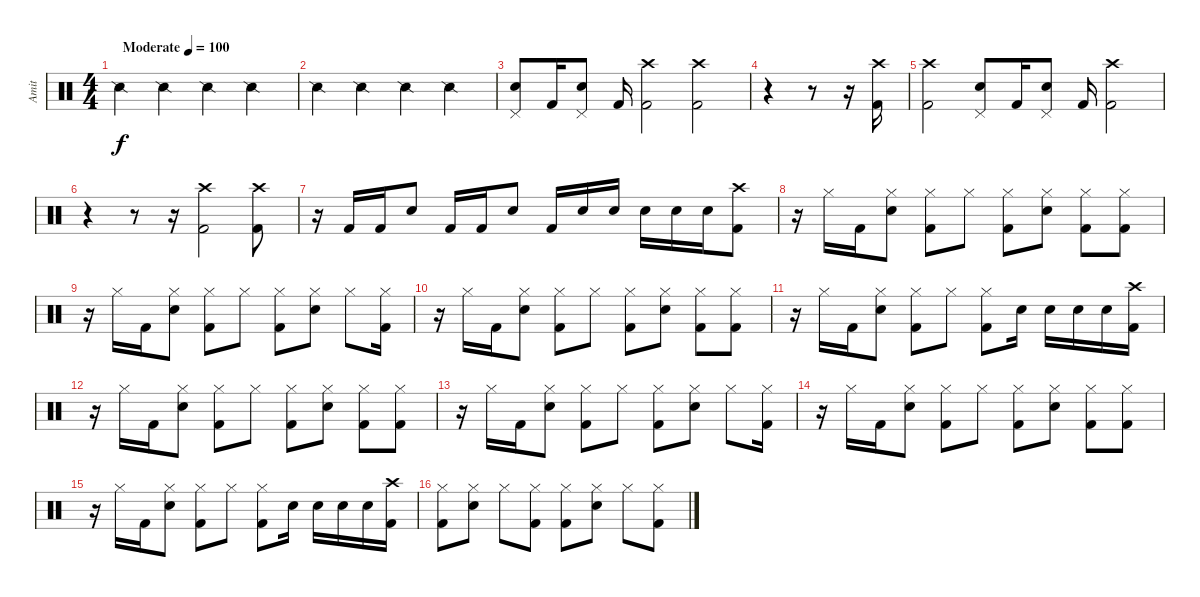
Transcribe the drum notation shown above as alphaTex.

\track ("Amit" "Amit") {instrument percussion}
\staff {score}
\articulation defaults
\ts (4 4)
\tempo (100 "Moderate")
\clef neutral
\ks c "Snare (side stick) 2".4{dy f} "Snare (side stick) 2".4 "Snare (side stick) 2".4 "Snare (side stick) 2".4
|
"Snare (side stick) 2".4 "Snare (side stick) 2".4 "Snare (side stick) 2".4 "Snare (side stick) 2".4 |
("Snare (hit) 2" "Pedal Hi-Hat (hit)").8 "Kick (hit) 2".16 ("Snare (hit) 2" "Pedal Hi-Hat (hit)").8 "Kick (hit) 2".16 ("Kick (hit) 2" "Crash high (hit)").2 ("Kick (hit) 2" "Crash high (hit)").2 |
r.4 r.8 r.16 ("Kick (hit) 2" "Crash high (hit)").16 |
("Kick (hit) 2" "Crash high (hit)").2 ("Snare (hit) 2" "Pedal Hi-Hat (hit)").8 "Kick (hit) 2".16 ("Snare (hit) 2" "Pedal Hi-Hat (hit)").8 "Kick (hit) 2".16 ("Kick (hit) 2" "Crash high (hit)").2 |
r.4 r.8 r.16 ("Kick (hit) 2" "Crash high (hit)").2 ("Kick (hit) 2" "Crash high (hit)").8 |
r.16 "Kick (hit) 2".16 "Kick (hit) 2".16 "Snare (hit) 2".8 "Kick (hit) 2".16 "Kick (hit) 2".16 "Snare (hit) 2".8 "Kick (hit) 2".16 "Snare (hit) 2".16 "Snare (hit) 2".16 "Snare (hit) 2".16 "Snare (hit) 2".16 "Snare (hit) 2".16 ("Kick (hit) 2" "Crash high (hit)").8 |
r.16 "Hi-Hat (closed)".16 "Kick (hit) 2".16 ("Hi-Hat (closed)" "Snare (hit) 2").8 ("Hi-Hat (closed)" "Kick (hit) 2").8 "Hi-Hat (closed)".8 ("Hi-Hat (closed)" "Kick (hit) 2").8 ("Hi-Hat (closed)" "Snare (hit) 2").8 ("Hi-Hat (closed)" "Kick (hit) 2").8 ("Hi-Hat (closed)" "Kick (hit) 2").8 |
r.16 "Hi-Hat (closed)".16 "Kick (hit) 2".16 ("Hi-Hat (closed)" "Snare (hit) 2").8 ("Hi-Hat (closed)" "Kick (hit) 2").8 "Hi-Hat (closed)".8 ("Hi-Hat (closed)" "Kick (hit) 2").8 ("Hi-Hat (closed)" "Snare (hit) 2").8 "Hi-Hat (closed)".8 ("Hi-Hat (closed)" "Kick (hit) 2").16 |
r.16 "Hi-Hat (closed)".16 "Kick (hit) 2".16 ("Hi-Hat (closed)" "Snare (hit) 2").8 ("Hi-Hat (closed)" "Kick (hit) 2").8 "Hi-Hat (closed)".8 ("Hi-Hat (closed)" "Kick (hit) 2").8 ("Hi-Hat (closed)" "Snare (hit) 2").8 ("Hi-Hat (closed)" "Kick (hit) 2").8 ("Hi-Hat (closed)" "Kick (hit) 2").8 |
r.16 "Hi-Hat (closed)".16 "Kick (hit) 2".16 ("Hi-Hat (closed)" "Snare (hit) 2").8 ("Hi-Hat (closed)" "Kick (hit) 2").8 "Hi-Hat (closed)".8 ("Hi-Hat (closed)" "Kick (hit) 2").8 "Snare (hit) 2".16 "Snare (hit) 2".16 "Snare (hit) 2".16 "Snare (hit) 2".16 ("Kick (hit) 2" "Crash high (hit)").16 |
r.16 "Hi-Hat (closed)".16 "Kick (hit) 2".16 ("Hi-Hat (closed)" "Snare (hit) 2").8 ("Hi-Hat (closed)" "Kick (hit) 2").8 "Hi-Hat (closed)".8 ("Hi-Hat (closed)" "Kick (hit) 2").8 ("Hi-Hat (closed)" "Snare (hit) 2").8 ("Hi-Hat (closed)" "Kick (hit) 2").8 ("Hi-Hat (closed)" "Kick (hit) 2").8 |
r.16 "Hi-Hat (closed)".16 "Kick (hit) 2".16 ("Hi-Hat (closed)" "Snare (hit) 2").8 ("Hi-Hat (closed)" "Kick (hit) 2").8 "Hi-Hat (closed)".8 ("Hi-Hat (closed)" "Kick (hit) 2").8 ("Hi-Hat (closed)" "Snare (hit) 2").8 "Hi-Hat (closed)".8 ("Hi-Hat (closed)" "Kick (hit) 2").16 |
r.16 "Hi-Hat (closed)".16 "Kick (hit) 2".16 ("Hi-Hat (closed)" "Snare (hit) 2").8 ("Hi-Hat (closed)" "Kick (hit) 2").8 "Hi-Hat (closed)".8 ("Hi-Hat (closed)" "Kick (hit) 2").8 ("Hi-Hat (closed)" "Snare (hit) 2").8 ("Hi-Hat (closed)" "Kick (hit) 2").8 ("Hi-Hat (closed)" "Kick (hit) 2").8 |
r.16 "Hi-Hat (closed)".16 "Kick (hit) 2".16 ("Hi-Hat (closed)" "Snare (hit) 2").8 ("Hi-Hat (closed)" "Kick (hit) 2").8 "Hi-Hat (closed)".8 ("Hi-Hat (closed)" "Kick (hit) 2").8 "Snare (hit) 2".16 "Snare (hit) 2".16 "Snare (hit) 2".16 "Snare (hit) 2".16 ("Kick (hit) 2" "Crash high (hit)").16 |
("Hi-Hat (closed)" "Kick (hit) 2").8 ("Hi-Hat (closed)" "Snare (hit) 2").8 "Hi-Hat (closed)".8 ("Hi-Hat (closed)" "Kick (hit) 2").8 ("Hi-Hat (closed)" "Kick (hit) 2").8 ("Hi-Hat (closed)" "Snare (hit) 2").8 "Hi-Hat (closed)".8 ("Hi-Hat (closed)" "Kick (hit) 2").8
